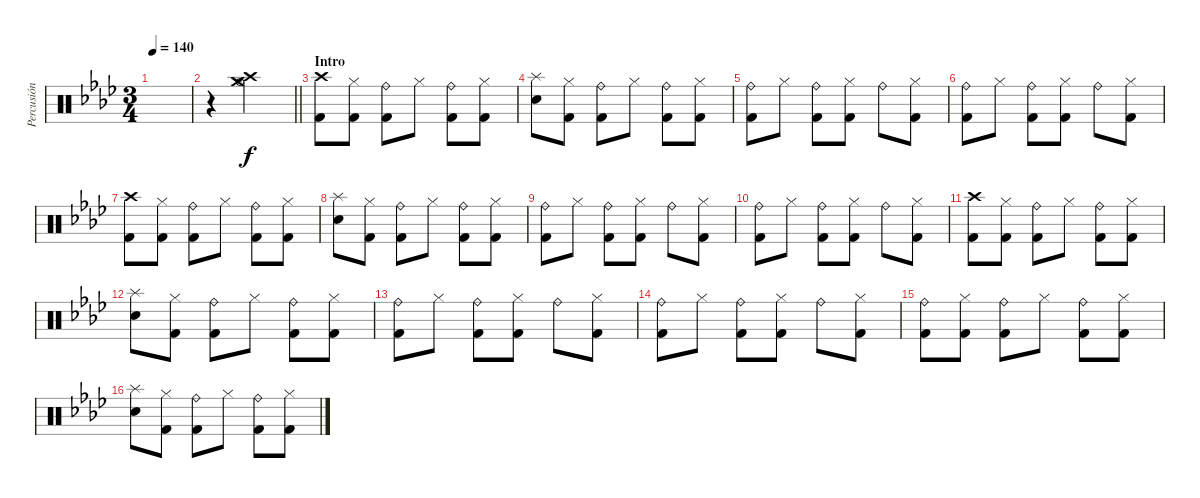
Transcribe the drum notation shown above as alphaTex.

\track ("Percusión" "Percusión") {instrument percussion}
\staff {score}
\articulation defaults
\ts (3 4)
\tempo 140
\clef neutral
\ks fminor
|
\barLineRight lightlight
r.4 ("Crash high (hit)" "Crash medium (hit)" "Hi-Hat (open)").2{volume 13} |
\section ("" "Intro")
("Crash high (hit)" "Kick (hit) 2").8{dy f} ("Hi-Hat (closed)" "Kick (hit) 2").8 ("Ride (bell)" "Kick (hit) 2").8 "Hi-Hat (closed)".8 ("Ride (bell)" "Kick (hit) 2").8 ("Hi-Hat (closed)" "Kick (hit) 2").8 |
("Splash (hit)" "Snare (hit) 2").8 ("Hi-Hat (closed)" "Kick (hit) 2").8 ("Ride (bell)" "Kick (hit) 2").8 "Hi-Hat (closed)".8 ("Ride (bell)" "Kick (hit) 2").8 ("Hi-Hat (closed)" "Kick (hit) 2").8 |
("Ride (bell)" "Kick (hit) 2").8 "Hi-Hat (closed)".8 ("Ride (bell)" "Kick (hit) 2").8 ("Hi-Hat (closed)" "Kick (hit) 2").8 "Ride (bell)".8 ("Hi-Hat (closed)" "Kick (hit) 2").8 |
("Ride (bell)" "Kick (hit) 2").8 "Hi-Hat (closed)".8 ("Ride (bell)" "Kick (hit) 2").8 ("Hi-Hat (closed)" "Kick (hit) 2").8 "Ride (bell)".8 ("Hi-Hat (closed)" "Kick (hit) 2").8 |
("Crash high (hit)" "Kick (hit) 2").8 ("Hi-Hat (closed)" "Kick (hit) 2").8 ("Ride (bell)" "Kick (hit) 2").8 "Hi-Hat (closed)".8 ("Ride (bell)" "Kick (hit) 2").8 ("Hi-Hat (closed)" "Kick (hit) 2").8 |
("Splash (hit)" "Snare (hit) 2").8 ("Hi-Hat (closed)" "Kick (hit) 2").8 ("Ride (bell)" "Kick (hit) 2").8 "Hi-Hat (closed)".8 ("Ride (bell)" "Kick (hit) 2").8 ("Hi-Hat (closed)" "Kick (hit) 2").8 |
("Ride (bell)" "Kick (hit) 2").8 "Hi-Hat (closed)".8 ("Ride (bell)" "Kick (hit) 2").8 ("Hi-Hat (closed)" "Kick (hit) 2").8 "Ride (bell)".8 ("Hi-Hat (closed)" "Kick (hit) 2").8 |
("Ride (bell)" "Kick (hit) 2").8 "Hi-Hat (closed)".8 ("Ride (bell)" "Kick (hit) 2").8 ("Hi-Hat (closed)" "Kick (hit) 2").8 "Ride (bell)".8 ("Hi-Hat (closed)" "Kick (hit) 2").8 |
("Crash high (hit)" "Kick (hit) 2").8 ("Hi-Hat (closed)" "Kick (hit) 2").8 ("Ride (bell)" "Kick (hit) 2").8 "Hi-Hat (closed)".8 ("Ride (bell)" "Kick (hit) 2").8 ("Hi-Hat (closed)" "Kick (hit) 2").8 |
("Splash (hit)" "Snare (hit) 2").8 ("Hi-Hat (closed)" "Kick (hit) 2").8 ("Ride (bell)" "Kick (hit) 2").8 "Hi-Hat (closed)".8 ("Ride (bell)" "Kick (hit) 2").8 ("Hi-Hat (closed)" "Kick (hit) 2").8 |
("Ride (bell)" "Kick (hit) 2").8 "Hi-Hat (closed)".8 ("Ride (bell)" "Kick (hit) 2").8 ("Hi-Hat (closed)" "Kick (hit) 2").8 "Ride (bell)".8 ("Hi-Hat (closed)" "Kick (hit) 2").8 |
("Ride (bell)" "Kick (hit) 2").8 "Hi-Hat (closed)".8 ("Ride (bell)" "Kick (hit) 2").8 ("Hi-Hat (closed)" "Kick (hit) 2").8 "Ride (bell)".8 ("Hi-Hat (closed)" "Kick (hit) 2").8 |
("Ride (bell)" "Kick (hit) 2").8 ("Hi-Hat (closed)" "Kick (hit) 2").8 ("Ride (bell)" "Kick (hit) 2").8 "Hi-Hat (closed)".8 ("Ride (bell)" "Kick (hit) 2").8 ("Hi-Hat (closed)" "Kick (hit) 2").8 |
("Splash (hit)" "Snare (hit) 2").8 ("Hi-Hat (closed)" "Kick (hit) 2").8 ("Ride (bell)" "Kick (hit) 2").8 "Hi-Hat (closed)".8 ("Ride (bell)" "Kick (hit) 2").8 ("Hi-Hat (closed)" "Kick (hit) 2").8
